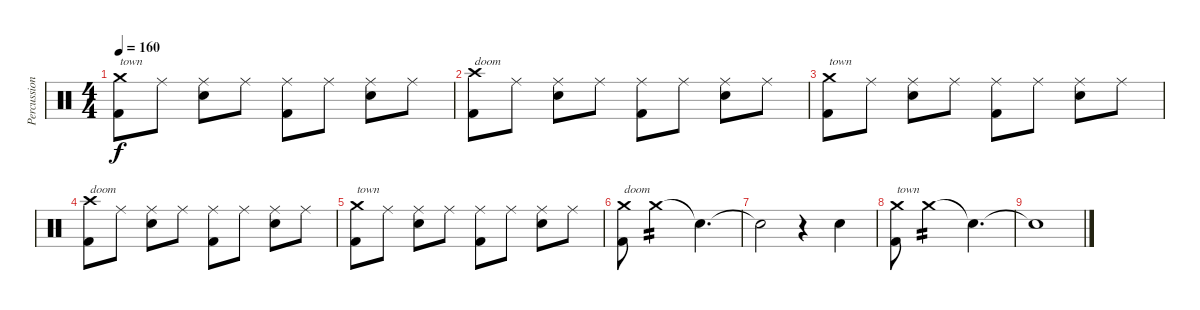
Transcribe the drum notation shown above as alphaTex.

\track ("Percussion" "Percussion") {mute instrument percussion}
\staff {score}
\articulation defaults
\ts (4 4)
\tempo 160
\clef neutral
\ks c
("Crash medium (hit)" "Kick (hit) 2").8{txt "town" dy f} "Ride (middle)".8 ("Ride (middle)" "Snare (hit) 2").8 "Ride (middle)".8 ("Ride (middle)" "Kick (hit) 2").8 "Ride (middle)".8 ("Ride (middle)" "Snare (hit) 2").8 "Ride (middle)".8 |
("Crash high (hit)" "Kick (hit) 2").8{txt "doom"} "Ride (middle)".8 ("Ride (middle)" "Snare (hit) 2").8 "Ride (middle)".8 ("Ride (middle)" "Kick (hit) 2").8 "Ride (middle)".8 ("Ride (middle)" "Snare (hit) 2").8 "Ride (middle)".8 |
("Crash medium (hit)" "Kick (hit) 2").8{txt "town"} "Ride (middle)".8 ("Ride (middle)" "Snare (hit) 2").8 "Ride (middle)".8 ("Ride (middle)" "Kick (hit) 2").8 "Ride (middle)".8 ("Ride (middle)" "Snare (hit) 2").8 "Ride (middle)".8 |
("Crash high (hit)" "Kick (hit) 2").8{txt "doom"} "Ride (middle)".8 ("Ride (middle)" "Snare (hit) 2").8 "Ride (middle)".8 ("Ride (middle)" "Kick (hit) 2").8 "Ride (middle)".8 ("Ride (middle)" "Snare (hit) 2").8 "Ride (middle)".8 |
("Crash medium (hit)" "Kick (hit) 2").8{txt "town"} "Ride (middle)".8 ("Ride (middle)" "Snare (hit) 2").8 "Ride (middle)".8 ("Ride (middle)" "Kick (hit) 2").8 "Ride (middle)".8 ("Ride (middle)" "Snare (hit) 2").8 "Ride (middle)".8 |
("Crash medium (hit)" "Kick (hit) 2").8{txt "doom"} "Crash medium (hit)".2{tp 2} "Snare (hit)"{t}.4{d} |
"Snare (hit)"{t}.2 r.4 "Snare (hit) 2".4 |
("Crash medium (hit)" "Kick (hit) 2").8{txt "town"} "Crash medium (hit)".2{tp 2} "Snare (hit)"{t}.4{d} |
"Snare (hit)"{t}.1
